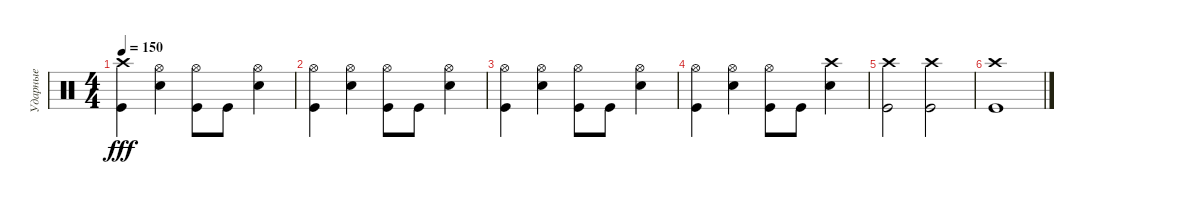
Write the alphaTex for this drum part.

\track ("Ударные" "Ударные") {instrument percussion}
\staff {score}
\articulation defaults
\ts (4 4)
\tempo 150
\clef neutral
\ks c
("Crash high (hit)" "Kick (hit)").4{dy fff} ("Hi-Hat (open)" "Electric Snare (hit)").4 ("Hi-Hat (open)" "Kick (hit)").8 "Kick (hit)".8 ("Hi-Hat (open)" "Electric Snare (hit)").4 |
("Hi-Hat (open)" "Kick (hit)").4 ("Hi-Hat (open)" "Electric Snare (hit)").4 ("Hi-Hat (open)" "Kick (hit)").8 "Kick (hit)".8 ("Hi-Hat (open)" "Electric Snare (hit)").4 |
("Hi-Hat (open)" "Kick (hit)").4 ("Hi-Hat (open)" "Electric Snare (hit)").4 ("Hi-Hat (open)" "Kick (hit)").8 "Kick (hit)".8 ("Hi-Hat (open)" "Electric Snare (hit)").4 |
("Hi-Hat (open)" "Kick (hit)").4 ("Hi-Hat (open)" "Electric Snare (hit)").4 ("Hi-Hat (open)" "Kick (hit)").8 "Kick (hit)".8 ("Crash high (hit)" "Electric Snare (hit)").4 |
("Crash high (hit)" "Kick (hit)").2 ("Kick (hit)" "Crash high (hit)").2 |
("Kick (hit)" "Crash high (hit)").1
